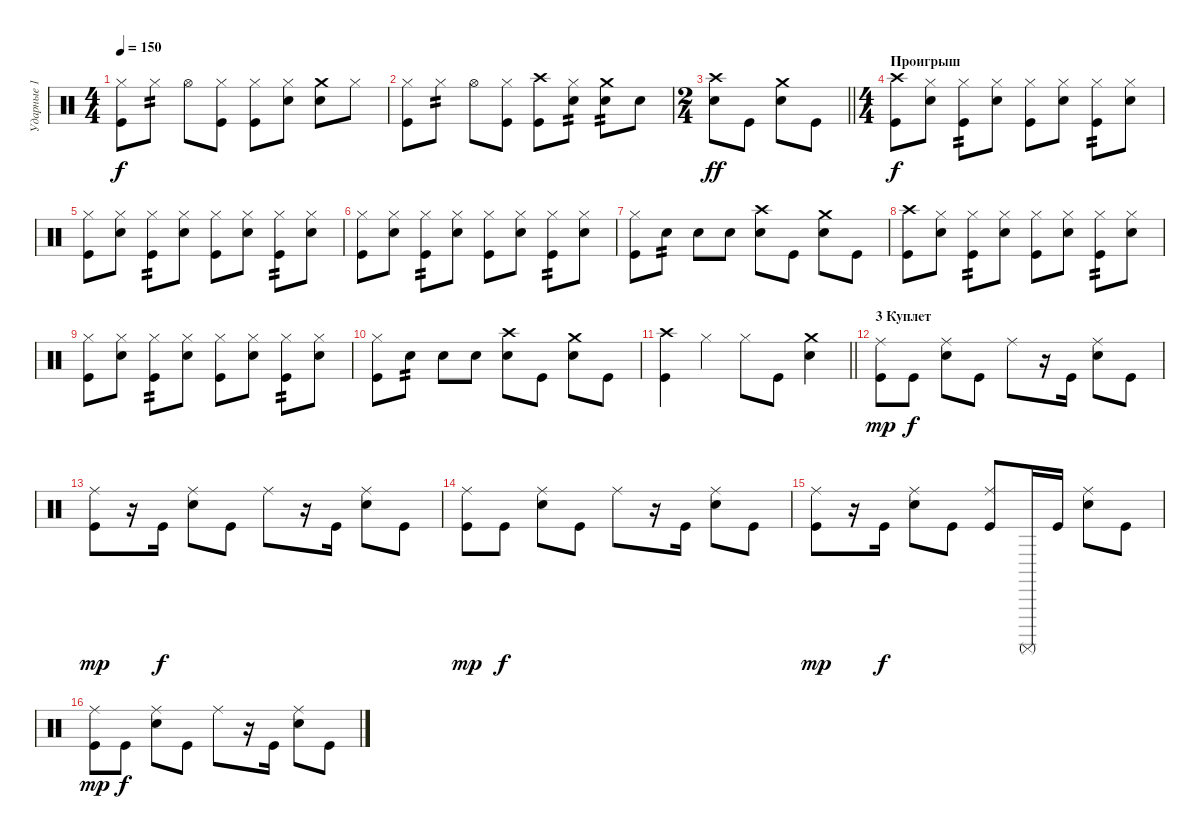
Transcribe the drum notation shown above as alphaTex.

\track ("Ударные 1" "Ударные 1") {instrument percussion}
\staff {score}
\articulation defaults
\ts (4 4)
\tempo 150
\clef neutral
\ks c
("Hi-Hat (closed)" "Kick (hit)").8{dy f} "Hi-Hat (closed)".8{tp 2} "Hi-Hat (open)".8 ("Hi-Hat (closed)" "Kick (hit)").8 ("Hi-Hat (closed)" "Kick (hit)").8 ("Hi-Hat (closed)" "Electric Snare (hit)").8 ("Crash medium (hit)" "Electric Snare (hit)").8 "Hi-Hat (closed)".8 |
("Hi-Hat (closed)" "Kick (hit)").8 "Hi-Hat (closed)".8{tp 2} "Hi-Hat (open)".8 ("Hi-Hat (closed)" "Kick (hit)").8 ("Crash high (hit)" "Kick (hit)").8 ("Hi-Hat (closed)" "Electric Snare (hit)").8{tp 2} ("Crash medium (hit)" "Electric Snare (hit)").8{tp 2} "Electric Snare (hit)".8 |
\ts (2 4)
\barLineRight lightlight
("Crash high (hit)" "Electric Snare (hit)").8{dy ff} "Kick (hit)".8 ("Crash medium (hit)" "Electric Snare (hit)").8 "Kick (hit)".8 |
\ts (4 4)
\section ("" "Проигрыш")
("Crash high (hit)" "Kick (hit)").8{dy f} ("Hi-Hat (closed)" "Electric Snare (hit)").8 ("Hi-Hat (closed)" "Kick (hit)").8{tp 2} ("Hi-Hat (closed)" "Electric Snare (hit)").8 ("Hi-Hat (closed)" "Kick (hit)").8 ("Hi-Hat (closed)" "Electric Snare (hit)").8 ("Hi-Hat (closed)" "Kick (hit)").8{tp 2} ("Hi-Hat (closed)" "Electric Snare (hit)").8 |
("Hi-Hat (closed)" "Kick (hit)").8 ("Hi-Hat (closed)" "Electric Snare (hit)").8 ("Hi-Hat (closed)" "Kick (hit)").8{tp 2} ("Hi-Hat (closed)" "Electric Snare (hit)").8 ("Hi-Hat (closed)" "Kick (hit)").8 ("Hi-Hat (closed)" "Electric Snare (hit)").8 ("Hi-Hat (closed)" "Kick (hit)").8{tp 2} ("Hi-Hat (closed)" "Electric Snare (hit)").8 |
("Hi-Hat (closed)" "Kick (hit)").8 ("Hi-Hat (closed)" "Electric Snare (hit)").8 ("Hi-Hat (closed)" "Kick (hit)").8{tp 2} ("Hi-Hat (closed)" "Electric Snare (hit)").8 ("Hi-Hat (closed)" "Kick (hit)").8 ("Hi-Hat (closed)" "Electric Snare (hit)").8 ("Hi-Hat (closed)" "Kick (hit)").8{tp 2} ("Hi-Hat (closed)" "Electric Snare (hit)").8 |
("Hi-Hat (closed)" "Kick (hit)").8 "Electric Snare (hit)".8{tp 2} "Electric Snare (hit)".8 "Electric Snare (hit)".8 ("Crash high (hit)" "Electric Snare (hit)").8 "Kick (hit)".8 ("Crash medium (hit)" "Electric Snare (hit)").8 "Kick (hit)".8 |
("Crash high (hit)" "Kick (hit)").8 ("Hi-Hat (closed)" "Electric Snare (hit)").8 ("Hi-Hat (closed)" "Kick (hit)").8{tp 2} ("Hi-Hat (closed)" "Electric Snare (hit)").8 ("Hi-Hat (closed)" "Kick (hit)").8 ("Hi-Hat (closed)" "Electric Snare (hit)").8 ("Hi-Hat (closed)" "Kick (hit)").8{tp 2} ("Hi-Hat (closed)" "Electric Snare (hit)").8 |
("Hi-Hat (closed)" "Kick (hit)").8 ("Hi-Hat (closed)" "Electric Snare (hit)").8 ("Hi-Hat (closed)" "Kick (hit)").8{tp 2} ("Hi-Hat (closed)" "Electric Snare (hit)").8 ("Hi-Hat (closed)" "Kick (hit)").8 ("Hi-Hat (closed)" "Electric Snare (hit)").8 ("Hi-Hat (closed)" "Kick (hit)").8{tp 2} ("Hi-Hat (closed)" "Electric Snare (hit)").8 |
("Hi-Hat (closed)" "Kick (hit)").8 "Electric Snare (hit)".8{tp 2} "Electric Snare (hit)".8 "Electric Snare (hit)".8 ("Crash high (hit)" "Electric Snare (hit)").8 "Kick (hit)".8 ("Crash medium (hit)" "Electric Snare (hit)").8 "Kick (hit)".8 |
\barLineRight lightlight
("Crash high (hit)" "Kick (hit)").4 "Hi-Hat (closed)".4 "Hi-Hat (closed)".8 "Kick (hit)".8 ("Crash medium (hit)" "Electric Snare (hit)").4 |
\section ("" "3 Куплет")
("Ride (middle)" "Kick (hit)").8{dy mp} "Kick (hit)".8{dy f} ("Ride (middle)" "Snare (hit) 2").8 "Kick (hit)".8 "Ride (middle)".8 r.16 "Kick (hit)".16 ("Ride (middle)" "Snare (hit) 2").8 "Kick (hit)".8 |
("Ride (middle)" "Kick (hit)").8{dy mp} r.16 "Kick (hit)".16{dy f} ("Ride (middle)" "Snare (hit) 2").8 "Kick (hit)".8 "Ride (middle)".8 r.16 "Kick (hit)".16 ("Ride (middle)" "Snare (hit) 2").8 "Kick (hit)".8 |
("Ride (middle)" "Kick (hit)").8{dy mp} "Kick (hit)".8{dy f} ("Ride (middle)" "Snare (hit) 2").8 "Kick (hit)".8 "Ride (middle)".8 r.16 "Kick (hit)".16 ("Ride (middle)" "Snare (hit) 2").8 "Kick (hit)".8 |
("Ride (middle)" "Kick (hit)").8{dy mp} r.16 "Kick (hit)".16{dy f} ("Ride (middle)" "Snare (hit) 2").8 "Kick (hit)".8 ("Ride (middle)" "Kick (hit)").8 "Surdo (mute)".16 "Kick (hit)".16 ("Ride (middle)" "Snare (hit) 2").8 "Kick (hit)".8 |
("Ride (middle)" "Kick (hit)").8{dy mp} "Kick (hit)".8{dy f} ("Ride (middle)" "Snare (hit) 2").8 "Kick (hit)".8 "Ride (middle)".8 r.16 "Kick (hit)".16 ("Ride (middle)" "Snare (hit) 2").8 "Kick (hit)".8
